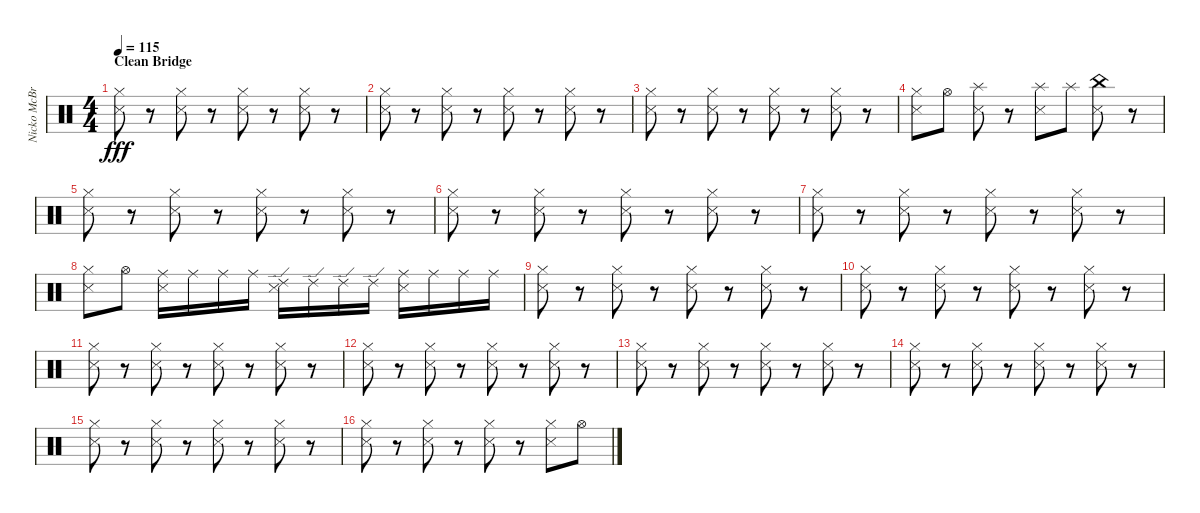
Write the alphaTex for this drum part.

\track ("Nicko McBrain" "Nicko McBr") {instrument percussion}
\staff {score}
\articulation defaults
\ts (4 4)
\section ("" "Clean Bridge")
\tempo 115
\clef neutral
\ks c
("Hi-Hat (closed)" "Snare (side stick) 3").8{dy fff} r.8 ("Hi-Hat (closed)" "Snare (side stick) 3").8 r.8 ("Hi-Hat (closed)" "Snare (side stick) 3").8 r.8 ("Hi-Hat (closed)" "Snare (side stick) 3").8 r.8 |
("Hi-Hat (closed)" "Snare (side stick) 3").8 r.8 ("Hi-Hat (closed)" "Snare (side stick) 3").8 r.8 ("Hi-Hat (closed)" "Snare (side stick) 3").8 r.8 ("Hi-Hat (closed)" "Snare (side stick) 3").8 r.8 |
("Hi-Hat (closed)" "Snare (side stick) 3").8 r.8 ("Hi-Hat (closed)" "Snare (side stick) 3").8 r.8 ("Hi-Hat (closed)" "Snare (side stick) 3").8 r.8 ("Hi-Hat (closed)" "Snare (side stick) 3").8 r.8 |
("Hi-Hat (closed)" "Snare (side stick) 3").8 "Hi-Hat (open)".8 ("Splash (hit)" "Snare (side stick) 3").8 r.8 ("Splash (hit)" "Snare (side stick) 3").8 "Splash (hit)".8 ("China (hit)" "Snare (side stick) 3").8 r.8 |
("Hi-Hat (closed)" "Snare (side stick) 3").8 r.8 ("Hi-Hat (closed)" "Snare (side stick) 3").8 r.8 ("Hi-Hat (closed)" "Snare (side stick) 3").8 r.8 ("Hi-Hat (closed)" "Snare (side stick) 3").8 r.8 |
("Hi-Hat (closed)" "Snare (side stick) 3").8 r.8 ("Hi-Hat (closed)" "Snare (side stick) 3").8 r.8 ("Hi-Hat (closed)" "Snare (side stick) 3").8 r.8 ("Hi-Hat (closed)" "Snare (side stick) 3").8 r.8 |
("Hi-Hat (closed)" "Snare (side stick) 3").8 r.8 ("Hi-Hat (closed)" "Snare (side stick) 3").8 r.8 ("Hi-Hat (closed)" "Snare (side stick) 3").8 r.8 ("Hi-Hat (closed)" "Snare (side stick) 3").8 r.8 |
("Hi-Hat (closed)" "Snare (side stick) 3").8 "Hi-Hat (open)".8 ("Ride (middle)" "Snare (side stick) 3").16 "Ride (middle)".16 "Ride (middle)".16 "Ride (middle)".16 ("Ride (edge) 2" "Snare (side stick) 3").16 "Ride (edge) 2".16 "Ride (edge) 2".16 "Ride (edge) 2".16 ("Ride (middle)" "Snare (side stick) 3").16 "Ride (middle)".16 "Ride (middle)".16 "Ride (middle)".16 |
("Hi-Hat (closed)" "Snare (side stick) 3").8 r.8 ("Hi-Hat (closed)" "Snare (side stick) 3").8 r.8 ("Hi-Hat (closed)" "Snare (side stick) 3").8 r.8 ("Hi-Hat (closed)" "Snare (side stick) 3").8 r.8 |
("Hi-Hat (closed)" "Snare (side stick) 3").8 r.8 ("Hi-Hat (closed)" "Snare (side stick) 3").8 r.8 ("Hi-Hat (closed)" "Snare (side stick) 3").8 r.8 ("Hi-Hat (closed)" "Snare (side stick) 3").8 r.8 |
("Hi-Hat (closed)" "Snare (side stick) 3").8 r.8 ("Hi-Hat (closed)" "Snare (side stick) 3").8 r.8 ("Hi-Hat (closed)" "Snare (side stick) 3").8 r.8 ("Hi-Hat (closed)" "Snare (side stick) 3").8 r.8 |
("Hi-Hat (closed)" "Snare (side stick) 3").8 r.8 ("Hi-Hat (closed)" "Snare (side stick) 3").8 r.8 ("Hi-Hat (closed)" "Snare (side stick) 3").8 r.8 ("Hi-Hat (closed)" "Snare (side stick) 3").8 r.8 |
("Hi-Hat (closed)" "Snare (side stick) 3").8 r.8 ("Hi-Hat (closed)" "Snare (side stick) 3").8 r.8 ("Hi-Hat (closed)" "Snare (side stick) 3").8 r.8 ("Hi-Hat (closed)" "Snare (side stick) 3").8 r.8 |
("Hi-Hat (closed)" "Snare (side stick) 3").8 r.8 ("Hi-Hat (closed)" "Snare (side stick) 3").8 r.8 ("Hi-Hat (closed)" "Snare (side stick) 3").8 r.8 ("Hi-Hat (closed)" "Snare (side stick) 3").8 r.8 |
("Hi-Hat (closed)" "Snare (side stick) 3").8 r.8 ("Hi-Hat (closed)" "Snare (side stick) 3").8 r.8 ("Hi-Hat (closed)" "Snare (side stick) 3").8 r.8 ("Hi-Hat (closed)" "Snare (side stick) 3").8 r.8 |
("Hi-Hat (closed)" "Snare (side stick) 3").8 r.8 ("Hi-Hat (closed)" "Snare (side stick) 3").8 r.8 ("Hi-Hat (closed)" "Snare (side stick) 3").8 r.8 ("Hi-Hat (closed)" "Snare (side stick) 3").8 "Hi-Hat (open)".8
